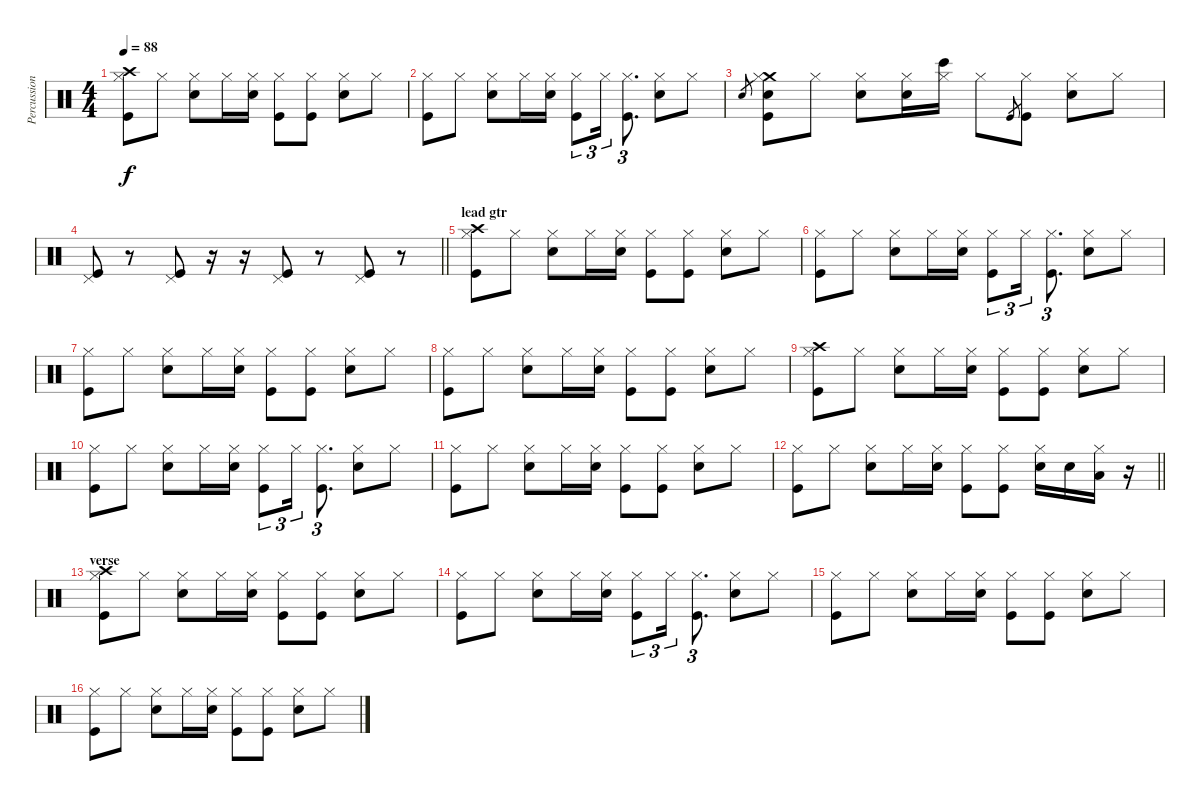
\track ("Percussions" "Percussion") {instrument percussion}
\staff {score}
\articulation defaults
\ts (4 4)
\tempo 88
\clef neutral
\ks c
("Crash high (hit)" "Hi-Hat (closed)" "Kick (hit)").8{dy f} "Hi-Hat (closed)".8 ("Electric Snare (hit)" "Hi-Hat (closed)").8 "Hi-Hat (closed)".16 ("Electric Snare (hit)" "Hi-Hat (closed)").16 ("Hi-Hat (closed)" "Kick (hit)").8 ("Hi-Hat (closed)" "Kick (hit)").8 ("Electric Snare (hit)" "Hi-Hat (closed)").8 "Hi-Hat (closed)".8 |
("Hi-Hat (closed)" "Kick (hit)").8 "Hi-Hat (closed)".8 ("Electric Snare (hit)" "Hi-Hat (closed)").8 "Hi-Hat (closed)".16 ("Electric Snare (hit)" "Hi-Hat (closed)").16 ("Hi-Hat (closed)" "Kick (hit)").8{tu (3 2)} "Hi-Hat (closed)".16{tu (3 2)} ("Hi-Hat (closed)" "Kick (hit)").8{d tu (3 2)} ("Electric Snare (hit)" "Hi-Hat (closed)").8 "Hi-Hat (closed)".8 |
"Electric Snare (hit)".8{gr} ("Crash medium (hit)" "Hi-Hat (closed)" "Electric Snare (hit)" "Kick (hit)").8 "Hi-Hat (closed)".8 ("Electric Snare (hit)" "Hi-Hat (closed)").8 ("Electric Snare (hit)" "Hi-Hat (closed)").16 ("Bongo High (hit)" "Hi-Hat (closed)").16 "Hi-Hat (closed)".8 "Kick (hit)".8{gr} ("Hi-Hat (closed)" "Kick (hit)").8 ("Electric Snare (hit)" "Hi-Hat (closed)").8 "Hi-Hat (closed)".8 |
\barLineRight lightlight
("Pedal Hi-Hat (hit)" "Kick (hit)").8{volume 15} r.8 ("Pedal Hi-Hat (hit)" "Kick (hit)").8 r.16 r.16 ("Pedal Hi-Hat (hit)" "Kick (hit)").8 r.8 ("Pedal Hi-Hat (hit)" "Kick (hit)").8 r.8 |
\section ("" "lead gtr")
("Crash high (hit)" "Hi-Hat (closed)" "Kick (hit)").8{volume 9} "Hi-Hat (closed)".8 ("Electric Snare (hit)" "Hi-Hat (closed)").8 "Hi-Hat (closed)".16 ("Electric Snare (hit)" "Hi-Hat (closed)").16 ("Hi-Hat (closed)" "Kick (hit)").8 ("Hi-Hat (closed)" "Kick (hit)").8 ("Electric Snare (hit)" "Hi-Hat (closed)").8 "Hi-Hat (closed)".8 |
("Hi-Hat (closed)" "Kick (hit)").8 "Hi-Hat (closed)".8 ("Electric Snare (hit)" "Hi-Hat (closed)").8 "Hi-Hat (closed)".16 ("Electric Snare (hit)" "Hi-Hat (closed)").16 ("Hi-Hat (closed)" "Kick (hit)").8{tu (3 2)} "Hi-Hat (closed)".16{tu (3 2)} ("Hi-Hat (closed)" "Kick (hit)").8{d tu (3 2)} ("Electric Snare (hit)" "Hi-Hat (closed)").8 "Hi-Hat (closed)".8 |
("Hi-Hat (closed)" "Kick (hit)").8 "Hi-Hat (closed)".8 ("Electric Snare (hit)" "Hi-Hat (closed)").8 "Hi-Hat (closed)".16 ("Electric Snare (hit)" "Hi-Hat (closed)").16 ("Hi-Hat (closed)" "Kick (hit)").8 ("Hi-Hat (closed)" "Kick (hit)").8 ("Electric Snare (hit)" "Hi-Hat (closed)").8 "Hi-Hat (closed)".8 |
("Hi-Hat (closed)" "Kick (hit)").8 "Hi-Hat (closed)".8 ("Electric Snare (hit)" "Hi-Hat (closed)").8 "Hi-Hat (closed)".16 ("Electric Snare (hit)" "Hi-Hat (closed)").16 ("Hi-Hat (closed)" "Kick (hit)").8 ("Hi-Hat (closed)" "Kick (hit)").8 ("Electric Snare (hit)" "Hi-Hat (closed)").8 "Hi-Hat (closed)".8 |
("Crash high (hit)" "Hi-Hat (closed)" "Kick (hit)").8 "Hi-Hat (closed)".8 ("Electric Snare (hit)" "Hi-Hat (closed)").8 "Hi-Hat (closed)".16 ("Electric Snare (hit)" "Hi-Hat (closed)").16 ("Hi-Hat (closed)" "Kick (hit)").8 ("Hi-Hat (closed)" "Kick (hit)").8 ("Electric Snare (hit)" "Hi-Hat (closed)").8 "Hi-Hat (closed)".8 |
("Hi-Hat (closed)" "Kick (hit)").8 "Hi-Hat (closed)".8 ("Electric Snare (hit)" "Hi-Hat (closed)").8 "Hi-Hat (closed)".16 ("Electric Snare (hit)" "Hi-Hat (closed)").16 ("Hi-Hat (closed)" "Kick (hit)").8{tu (3 2)} "Hi-Hat (closed)".16{tu (3 2)} ("Hi-Hat (closed)" "Kick (hit)").8{d tu (3 2)} ("Electric Snare (hit)" "Hi-Hat (closed)").8 "Hi-Hat (closed)".8 |
("Hi-Hat (closed)" "Kick (hit)").8 "Hi-Hat (closed)".8 ("Electric Snare (hit)" "Hi-Hat (closed)").8 "Hi-Hat (closed)".16 ("Electric Snare (hit)" "Hi-Hat (closed)").16 ("Hi-Hat (closed)" "Kick (hit)").8 ("Hi-Hat (closed)" "Kick (hit)").8 ("Electric Snare (hit)" "Hi-Hat (closed)").8 "Hi-Hat (closed)".8 |
\barLineRight lightlight
("Hi-Hat (closed)" "Kick (hit)").8 "Hi-Hat (closed)".8 ("Electric Snare (hit)" "Hi-Hat (closed)").8 "Hi-Hat (closed)".16 ("Electric Snare (hit)" "Hi-Hat (closed)").16 ("Hi-Hat (closed)" "Kick (hit)").8 ("Hi-Hat (closed)" "Kick (hit)").8 ("Electric Snare (hit)" "Hi-Hat (closed)").16 "Snare (hit) 2".16 ("Low Tom (hit)" "Hi-Hat (closed)").16 r.16 |
\section ("" "verse")
("Crash high (hit)" "Hi-Hat (closed)" "Kick (hit)").8 "Hi-Hat (closed)".8 ("Electric Snare (hit)" "Hi-Hat (closed)").8 "Hi-Hat (closed)".16 ("Electric Snare (hit)" "Hi-Hat (closed)").16 ("Hi-Hat (closed)" "Kick (hit)").8 ("Hi-Hat (closed)" "Kick (hit)").8 ("Electric Snare (hit)" "Hi-Hat (closed)").8 "Hi-Hat (closed)".8 |
("Hi-Hat (closed)" "Kick (hit)").8 "Hi-Hat (closed)".8 ("Electric Snare (hit)" "Hi-Hat (closed)").8 "Hi-Hat (closed)".16 ("Electric Snare (hit)" "Hi-Hat (closed)").16 ("Hi-Hat (closed)" "Kick (hit)").8{tu (3 2)} "Hi-Hat (closed)".16{tu (3 2)} ("Hi-Hat (closed)" "Kick (hit)").8{d tu (3 2)} ("Electric Snare (hit)" "Hi-Hat (closed)").8 "Hi-Hat (closed)".8 |
("Hi-Hat (closed)" "Kick (hit)").8 "Hi-Hat (closed)".8 ("Electric Snare (hit)" "Hi-Hat (closed)").8 "Hi-Hat (closed)".16 ("Electric Snare (hit)" "Hi-Hat (closed)").16 ("Hi-Hat (closed)" "Kick (hit)").8 ("Hi-Hat (closed)" "Kick (hit)").8 ("Electric Snare (hit)" "Hi-Hat (closed)").8 "Hi-Hat (closed)".8 |
("Hi-Hat (closed)" "Kick (hit)").8 "Hi-Hat (closed)".8 ("Electric Snare (hit)" "Hi-Hat (closed)").8 "Hi-Hat (closed)".16 ("Electric Snare (hit)" "Hi-Hat (closed)").16 ("Hi-Hat (closed)" "Kick (hit)").8 ("Hi-Hat (closed)" "Kick (hit)").8 ("Electric Snare (hit)" "Hi-Hat (closed)").8 "Hi-Hat (closed)".8
